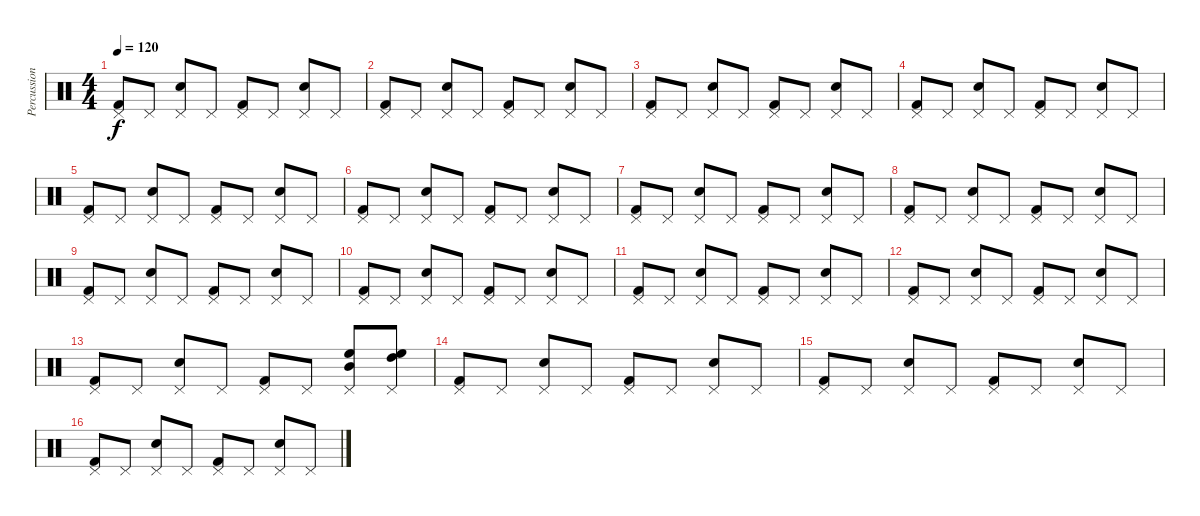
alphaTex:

\track ("Percussions" "Percussion") {instrument percussion}
\staff {score}
\articulation defaults
\ts (4 4)
\tempo 120
\clef neutral
\ks c
("Pedal Hi-Hat (hit)" "Kick (hit) 2").8{dy f} "Pedal Hi-Hat (hit)".8 ("Pedal Hi-Hat (hit)" "Snare (hit) 2").8 "Pedal Hi-Hat (hit)".8 ("Pedal Hi-Hat (hit)" "Kick (hit) 2").8 "Pedal Hi-Hat (hit)".8 ("Pedal Hi-Hat (hit)" "Snare (hit) 2").8 "Pedal Hi-Hat (hit)".8 |
("Pedal Hi-Hat (hit)" "Kick (hit) 2").8 "Pedal Hi-Hat (hit)".8 ("Pedal Hi-Hat (hit)" "Snare (hit) 2").8 "Pedal Hi-Hat (hit)".8 ("Pedal Hi-Hat (hit)" "Kick (hit) 2").8 "Pedal Hi-Hat (hit)".8 ("Pedal Hi-Hat (hit)" "Snare (hit) 2").8 "Pedal Hi-Hat (hit)".8 |
("Pedal Hi-Hat (hit)" "Kick (hit) 2").8 "Pedal Hi-Hat (hit)".8 ("Pedal Hi-Hat (hit)" "Snare (hit) 2").8 "Pedal Hi-Hat (hit)".8 ("Pedal Hi-Hat (hit)" "Kick (hit) 2").8 "Pedal Hi-Hat (hit)".8 ("Pedal Hi-Hat (hit)" "Snare (hit) 2").8 "Pedal Hi-Hat (hit)".8 |
("Pedal Hi-Hat (hit)" "Kick (hit) 2").8 "Pedal Hi-Hat (hit)".8 ("Pedal Hi-Hat (hit)" "Snare (hit) 2").8 "Pedal Hi-Hat (hit)".8 ("Pedal Hi-Hat (hit)" "Kick (hit) 2").8 "Pedal Hi-Hat (hit)".8 ("Pedal Hi-Hat (hit)" "Snare (hit) 2").8 "Pedal Hi-Hat (hit)".8 |
("Pedal Hi-Hat (hit)" "Kick (hit) 2").8 "Pedal Hi-Hat (hit)".8 ("Pedal Hi-Hat (hit)" "Snare (hit) 2").8 "Pedal Hi-Hat (hit)".8 ("Pedal Hi-Hat (hit)" "Kick (hit) 2").8 "Pedal Hi-Hat (hit)".8 ("Pedal Hi-Hat (hit)" "Snare (hit) 2").8 "Pedal Hi-Hat (hit)".8 |
("Pedal Hi-Hat (hit)" "Kick (hit) 2").8 "Pedal Hi-Hat (hit)".8 ("Pedal Hi-Hat (hit)" "Snare (hit) 2").8 "Pedal Hi-Hat (hit)".8 ("Pedal Hi-Hat (hit)" "Kick (hit) 2").8 "Pedal Hi-Hat (hit)".8 ("Pedal Hi-Hat (hit)" "Snare (hit) 2").8 "Pedal Hi-Hat (hit)".8 |
("Pedal Hi-Hat (hit)" "Kick (hit) 2").8 "Pedal Hi-Hat (hit)".8 ("Pedal Hi-Hat (hit)" "Snare (hit) 2").8 "Pedal Hi-Hat (hit)".8 ("Pedal Hi-Hat (hit)" "Kick (hit) 2").8 "Pedal Hi-Hat (hit)".8 ("Pedal Hi-Hat (hit)" "Snare (hit) 2").8 "Pedal Hi-Hat (hit)".8 |
("Pedal Hi-Hat (hit)" "Kick (hit) 2").8 "Pedal Hi-Hat (hit)".8 ("Pedal Hi-Hat (hit)" "Snare (hit) 2").8 "Pedal Hi-Hat (hit)".8 ("Pedal Hi-Hat (hit)" "Kick (hit) 2").8 "Pedal Hi-Hat (hit)".8 ("Pedal Hi-Hat (hit)" "Snare (hit) 2").8 "Pedal Hi-Hat (hit)".8 |
("Pedal Hi-Hat (hit)" "Kick (hit) 2").8 "Pedal Hi-Hat (hit)".8 ("Pedal Hi-Hat (hit)" "Snare (hit) 2").8 "Pedal Hi-Hat (hit)".8 ("Pedal Hi-Hat (hit)" "Kick (hit) 2").8 "Pedal Hi-Hat (hit)".8 ("Pedal Hi-Hat (hit)" "Snare (hit) 2").8 "Pedal Hi-Hat (hit)".8 |
("Pedal Hi-Hat (hit)" "Kick (hit) 2").8 "Pedal Hi-Hat (hit)".8 ("Pedal Hi-Hat (hit)" "Snare (hit) 2").8 "Pedal Hi-Hat (hit)".8 ("Pedal Hi-Hat (hit)" "Kick (hit) 2").8 "Pedal Hi-Hat (hit)".8 ("Pedal Hi-Hat (hit)" "Snare (hit) 2").8 "Pedal Hi-Hat (hit)".8 |
("Pedal Hi-Hat (hit)" "Kick (hit) 2").8 "Pedal Hi-Hat (hit)".8 ("Pedal Hi-Hat (hit)" "Snare (hit) 2").8 "Pedal Hi-Hat (hit)".8 ("Pedal Hi-Hat (hit)" "Kick (hit) 2").8 "Pedal Hi-Hat (hit)".8 ("Pedal Hi-Hat (hit)" "Snare (hit) 2").8 "Pedal Hi-Hat (hit)".8 |
("Pedal Hi-Hat (hit)" "Kick (hit) 2").8 "Pedal Hi-Hat (hit)".8 ("Pedal Hi-Hat (hit)" "Snare (hit) 2").8 "Pedal Hi-Hat (hit)".8 ("Pedal Hi-Hat (hit)" "Kick (hit) 2").8 "Pedal Hi-Hat (hit)".8 ("Pedal Hi-Hat (hit)" "Snare (hit) 2").8 "Pedal Hi-Hat (hit)".8 |
("Pedal Hi-Hat (hit)" "Kick (hit) 2").8 "Pedal Hi-Hat (hit)".8 ("Pedal Hi-Hat (hit)" "Snare (hit) 2").8 "Pedal Hi-Hat (hit)".8 ("Pedal Hi-Hat (hit)" "Kick (hit) 2").8 "Pedal Hi-Hat (hit)".8 ("Pedal Hi-Hat (hit)" "High Floor Tom (hit)" "Mid Tom (hit)").8 ("Pedal Hi-Hat (hit)" "High Tom (hit)" "High Floor Tom (hit)").8 |
("Pedal Hi-Hat (hit)" "Kick (hit) 2").8 "Pedal Hi-Hat (hit)".8 ("Pedal Hi-Hat (hit)" "Snare (hit) 2").8 "Pedal Hi-Hat (hit)".8 ("Pedal Hi-Hat (hit)" "Kick (hit) 2").8 "Pedal Hi-Hat (hit)".8 ("Pedal Hi-Hat (hit)" "Snare (hit) 2").8 "Pedal Hi-Hat (hit)".8 |
("Pedal Hi-Hat (hit)" "Kick (hit) 2").8 "Pedal Hi-Hat (hit)".8 ("Pedal Hi-Hat (hit)" "Snare (hit) 2").8 "Pedal Hi-Hat (hit)".8 ("Pedal Hi-Hat (hit)" "Kick (hit) 2").8 "Pedal Hi-Hat (hit)".8 ("Pedal Hi-Hat (hit)" "Snare (hit) 2").8 "Pedal Hi-Hat (hit)".8 |
("Pedal Hi-Hat (hit)" "Kick (hit) 2").8 "Pedal Hi-Hat (hit)".8 ("Pedal Hi-Hat (hit)" "Snare (hit) 2").8 "Pedal Hi-Hat (hit)".8 ("Pedal Hi-Hat (hit)" "Kick (hit) 2").8 "Pedal Hi-Hat (hit)".8 ("Pedal Hi-Hat (hit)" "Snare (hit) 2").8 "Pedal Hi-Hat (hit)".8
